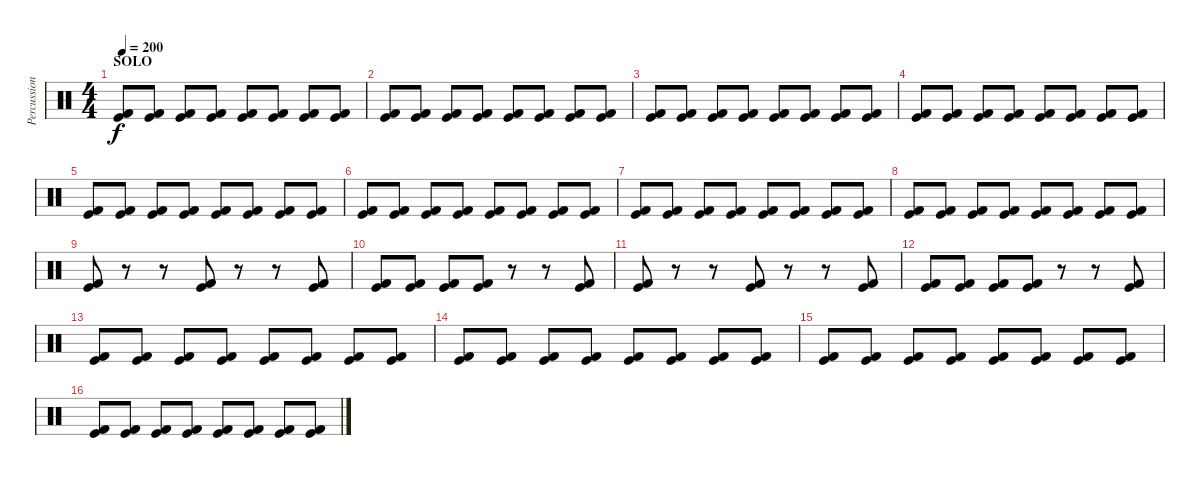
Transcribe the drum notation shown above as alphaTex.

\track ("Percussion" "Percussion") {instrument percussion}
\staff {score}
\articulation defaults
\ts (4 4)
\section ("" "SOLO")
\tempo 200
\clef neutral
\ks c
("Kick (hit) 2" "Kick (hit)").8{dy f} ("Kick (hit) 2" "Kick (hit)").8 ("Kick (hit) 2" "Kick (hit)").8 ("Kick (hit) 2" "Kick (hit)").8 ("Kick (hit) 2" "Kick (hit)").8 ("Kick (hit) 2" "Kick (hit)").8 ("Kick (hit) 2" "Kick (hit)").8 ("Kick (hit) 2" "Kick (hit)").8 |
("Kick (hit) 2" "Kick (hit)").8 ("Kick (hit) 2" "Kick (hit)").8 ("Kick (hit) 2" "Kick (hit)").8 ("Kick (hit) 2" "Kick (hit)").8 ("Kick (hit) 2" "Kick (hit)").8 ("Kick (hit) 2" "Kick (hit)").8 ("Kick (hit) 2" "Kick (hit)").8 ("Kick (hit) 2" "Kick (hit)").8 |
("Kick (hit) 2" "Kick (hit)").8 ("Kick (hit) 2" "Kick (hit)").8 ("Kick (hit) 2" "Kick (hit)").8 ("Kick (hit) 2" "Kick (hit)").8 ("Kick (hit) 2" "Kick (hit)").8 ("Kick (hit) 2" "Kick (hit)").8 ("Kick (hit) 2" "Kick (hit)").8 ("Kick (hit) 2" "Kick (hit)").8 |
("Kick (hit) 2" "Kick (hit)").8 ("Kick (hit) 2" "Kick (hit)").8 ("Kick (hit) 2" "Kick (hit)").8 ("Kick (hit) 2" "Kick (hit)").8 ("Kick (hit) 2" "Kick (hit)").8 ("Kick (hit) 2" "Kick (hit)").8 ("Kick (hit) 2" "Kick (hit)").8 ("Kick (hit) 2" "Kick (hit)").8 |
("Kick (hit) 2" "Kick (hit)").8 ("Kick (hit) 2" "Kick (hit)").8 ("Kick (hit) 2" "Kick (hit)").8 ("Kick (hit) 2" "Kick (hit)").8 ("Kick (hit) 2" "Kick (hit)").8 ("Kick (hit) 2" "Kick (hit)").8 ("Kick (hit) 2" "Kick (hit)").8 ("Kick (hit) 2" "Kick (hit)").8 |
("Kick (hit) 2" "Kick (hit)").8 ("Kick (hit) 2" "Kick (hit)").8 ("Kick (hit) 2" "Kick (hit)").8 ("Kick (hit) 2" "Kick (hit)").8 ("Kick (hit) 2" "Kick (hit)").8 ("Kick (hit) 2" "Kick (hit)").8 ("Kick (hit) 2" "Kick (hit)").8 ("Kick (hit) 2" "Kick (hit)").8 |
("Kick (hit) 2" "Kick (hit)").8 ("Kick (hit) 2" "Kick (hit)").8 ("Kick (hit) 2" "Kick (hit)").8 ("Kick (hit) 2" "Kick (hit)").8 ("Kick (hit) 2" "Kick (hit)").8 ("Kick (hit) 2" "Kick (hit)").8 ("Kick (hit) 2" "Kick (hit)").8 ("Kick (hit) 2" "Kick (hit)").8 |
("Kick (hit) 2" "Kick (hit)").8 ("Kick (hit) 2" "Kick (hit)").8 ("Kick (hit) 2" "Kick (hit)").8 ("Kick (hit) 2" "Kick (hit)").8 ("Kick (hit) 2" "Kick (hit)").8 ("Kick (hit) 2" "Kick (hit)").8 ("Kick (hit) 2" "Kick (hit)").8 ("Kick (hit) 2" "Kick (hit)").8 |
("Kick (hit) 2" "Kick (hit)").8 r.8 r.8 ("Kick (hit) 2" "Kick (hit)").8 r.8 r.8 ("Kick (hit) 2" "Kick (hit)").8 |
("Kick (hit) 2" "Kick (hit)").8 ("Kick (hit) 2" "Kick (hit)").8 ("Kick (hit) 2" "Kick (hit)").8 ("Kick (hit) 2" "Kick (hit)").8 r.8 r.8 ("Kick (hit) 2" "Kick (hit)").8 |
("Kick (hit) 2" "Kick (hit)").8 r.8 r.8 ("Kick (hit) 2" "Kick (hit)").8 r.8 r.8 ("Kick (hit) 2" "Kick (hit)").8 |
("Kick (hit) 2" "Kick (hit)").8 ("Kick (hit) 2" "Kick (hit)").8 ("Kick (hit) 2" "Kick (hit)").8 ("Kick (hit) 2" "Kick (hit)").8 r.8 r.8 ("Kick (hit) 2" "Kick (hit)").8 |
("Kick (hit) 2" "Kick (hit)").8 ("Kick (hit) 2" "Kick (hit)").8 ("Kick (hit) 2" "Kick (hit)").8 ("Kick (hit) 2" "Kick (hit)").8 ("Kick (hit) 2" "Kick (hit)").8 ("Kick (hit) 2" "Kick (hit)").8 ("Kick (hit) 2" "Kick (hit)").8 ("Kick (hit) 2" "Kick (hit)").8 |
("Kick (hit) 2" "Kick (hit)").8 ("Kick (hit) 2" "Kick (hit)").8 ("Kick (hit) 2" "Kick (hit)").8 ("Kick (hit) 2" "Kick (hit)").8 ("Kick (hit) 2" "Kick (hit)").8 ("Kick (hit) 2" "Kick (hit)").8 ("Kick (hit) 2" "Kick (hit)").8 ("Kick (hit) 2" "Kick (hit)").8 |
("Kick (hit) 2" "Kick (hit)").8 ("Kick (hit) 2" "Kick (hit)").8 ("Kick (hit) 2" "Kick (hit)").8 ("Kick (hit) 2" "Kick (hit)").8 ("Kick (hit) 2" "Kick (hit)").8 ("Kick (hit) 2" "Kick (hit)").8 ("Kick (hit) 2" "Kick (hit)").8 ("Kick (hit) 2" "Kick (hit)").8 |
("Kick (hit) 2" "Kick (hit)").8 ("Kick (hit) 2" "Kick (hit)").8 ("Kick (hit) 2" "Kick (hit)").8 ("Kick (hit) 2" "Kick (hit)").8 ("Kick (hit) 2" "Kick (hit)").8 ("Kick (hit) 2" "Kick (hit)").8 ("Kick (hit) 2" "Kick (hit)").8 ("Kick (hit) 2" "Kick (hit)").8
